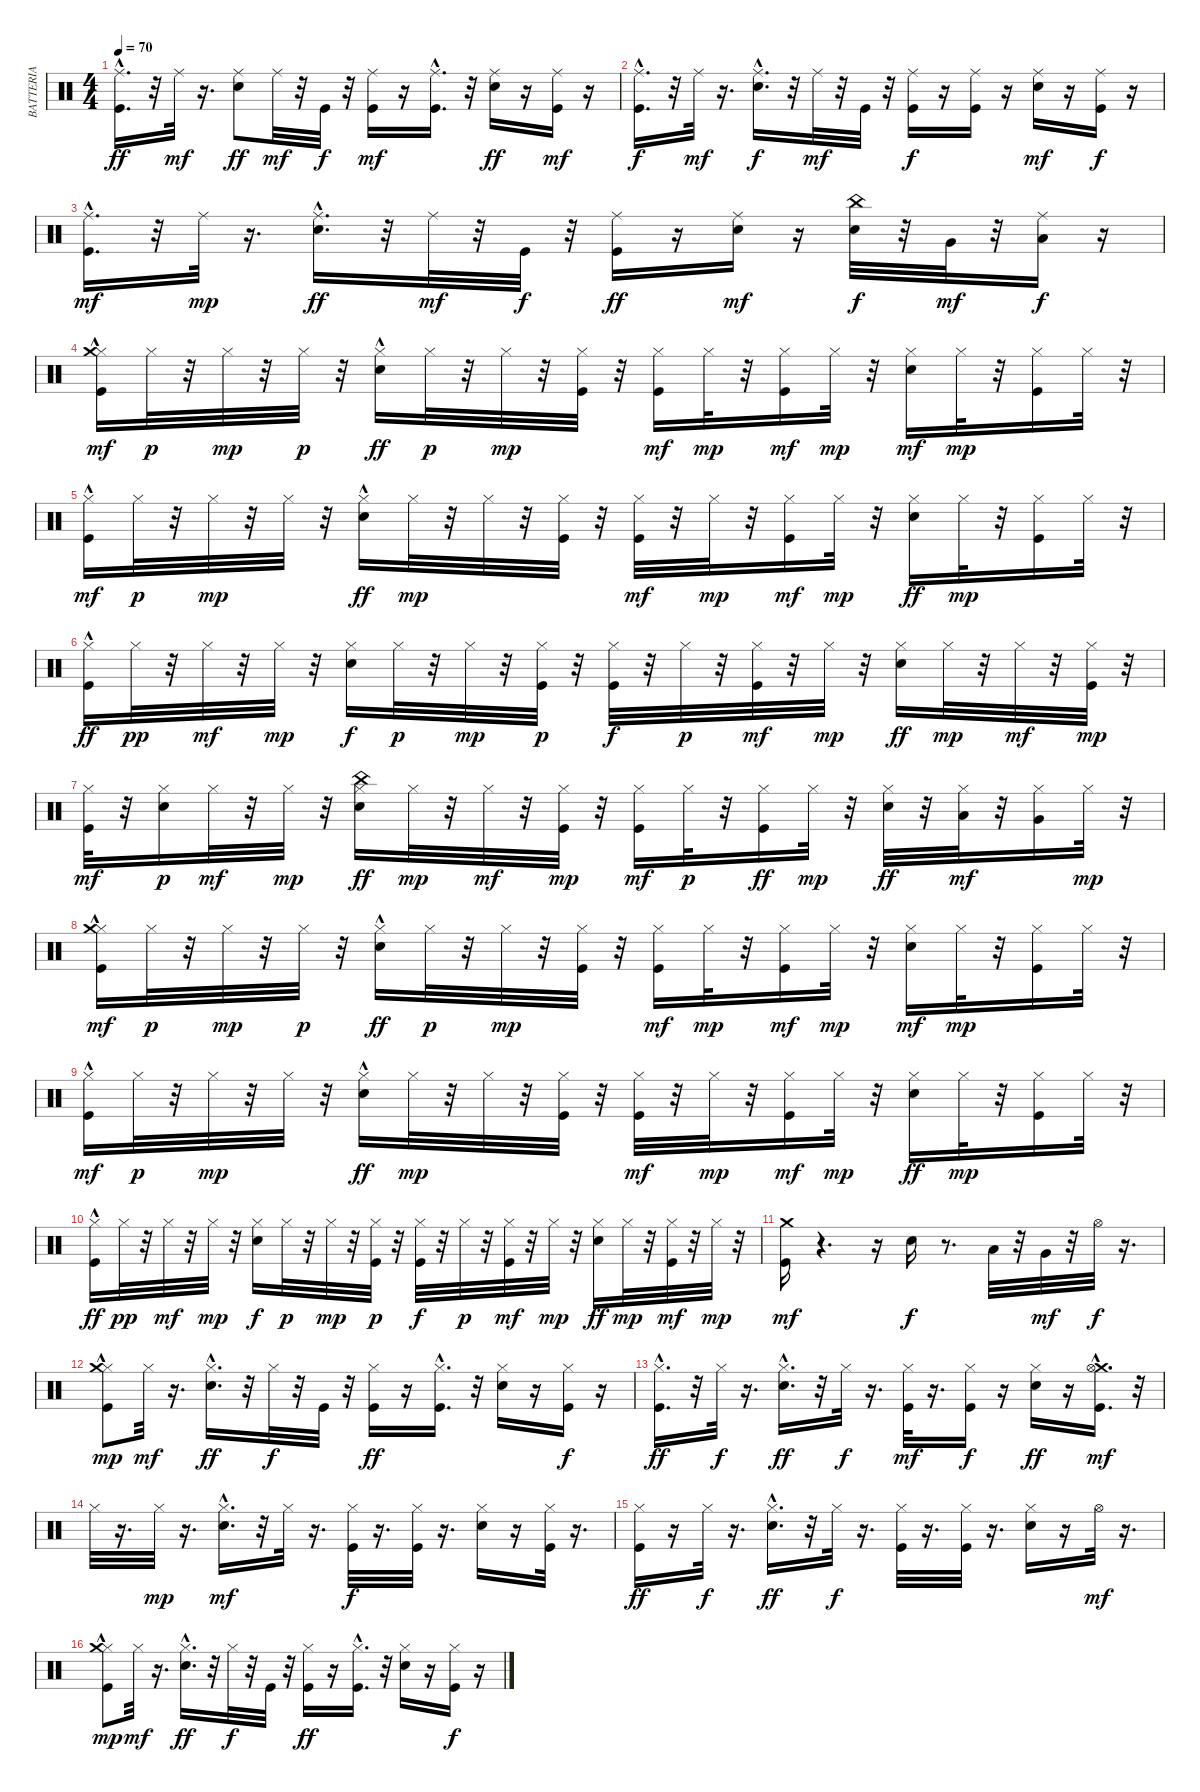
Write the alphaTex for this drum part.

\track ("BATTERIA" "BATTERIA") {instrument percussion}
\staff {score}
\articulation defaults
\ts (4 4)
\tempo 70
\clef neutral
\ks c
("Ride (middle)" "Kick (hit)"{hac}).16{d dy ff} r.32 "Ride (middle)".32{dy mf} r.16{d} ("Ride (middle)" "Snare (hit) 2").8{dy ff} "Ride (middle)".32{dy mf} r.32 "Kick (hit)".32{dy f} r.32 ("Ride (middle)" "Kick (hit)").16{dy mf} r.16 ("Ride (middle)" "Kick (hit)"{hac}).16{d} r.32 ("Ride (middle)" "Snare (hit) 2").16{dy ff} r.16 ("Ride (middle)" "Kick (hit)").16{dy mf} r.16 |
("Ride (middle)" "Kick (hit)"{hac}).16{d dy f} r.32 "Ride (middle)".32{dy mf} r.16{d} ("Ride (middle)" "Snare (hit) 2"{hac}).16{d dy f} r.32 "Ride (middle)".32{dy mf} r.32 "Kick (hit)".32 r.32 ("Ride (middle)" "Kick (hit)").16{dy f} r.16 ("Ride (middle)" "Kick (hit)").16 r.16 ("Ride (middle)" "Snare (hit) 2").16{dy mf} r.16 ("Ride (middle)" "Kick (hit)").16{dy f} r.16 |
("Ride (middle)" "Kick (hit)"{hac}).16{d dy mf} r.32 "Ride (middle)".32{dy mp} r.16{d} ("Ride (middle)" "Snare (hit) 2"{hac}).16{d dy ff} r.32 "Ride (middle)".32{dy mf} r.32 "Kick (hit)".32{dy f} r.32 ("Ride (middle)" "Kick (hit)").16{dy ff} r.16 ("Ride (middle)" "Snare (hit) 2").16{dy mf} r.16 ("China (hit)" "Snare (hit) 2").32{dy f} r.32 "Very Low Tom (hit)".32{dy mf} r.32 ("Ride (middle)" "Low Floor Tom (hit)").16{dy f} r.16 |
("Hi-Hat (closed)" "Kick (hit)"{hac} "Crash medium (hit)"{hac}).16{dy mf} "Hi-Hat (closed)".32{dy p} r.32 "Hi-Hat (closed)".32{dy mp} r.32 "Hi-Hat (closed)".32{dy p} r.32 ("Hi-Hat (closed)" "Snare (hit) 2"{hac}).16{dy ff} "Hi-Hat (closed)".32{dy p} r.32 "Hi-Hat (closed)".32{dy mp} r.32 ("Kick (hit)" "Hi-Hat (closed)").32 r.32 ("Kick (hit)" "Hi-Hat (closed)").16{dy mf} "Hi-Hat (closed)".32{dy mp} r.32 ("Kick (hit)" "Hi-Hat (closed)").16{dy mf} "Hi-Hat (closed)".32{dy mp} r.32 ("Snare (hit) 2" "Hi-Hat (closed)").16{dy mf} "Hi-Hat (closed)".32{dy mp} r.32 ("Hi-Hat (closed)" "Kick (hit)").16 "Hi-Hat (closed)".32 r.32 |
("Kick (hit)"{hac} "Hi-Hat (closed)").16{dy mf} "Hi-Hat (closed)".32{dy p} r.32 "Hi-Hat (closed)".32{dy mp} r.32 "Hi-Hat (closed)".32 r.32 ("Hi-Hat (closed)" "Snare (hit) 2"{hac}).16{dy ff} "Hi-Hat (closed)".32{dy mp} r.32 "Hi-Hat (closed)".32 r.32 ("Kick (hit)" "Hi-Hat (closed)").32 r.32 ("Hi-Hat (closed)" "Kick (hit)").32{dy mf} r.32 "Hi-Hat (closed)".32{dy mp} r.32 ("Hi-Hat (closed)" "Kick (hit)").16{dy mf} "Hi-Hat (closed)".32{dy mp} r.32 ("Hi-Hat (closed)" "Snare (hit) 2").16{dy ff} "Hi-Hat (closed)".32{dy mp} r.32 ("Hi-Hat (closed)" "Kick (hit)").16 "Hi-Hat (closed)".32 r.32 |
("Kick (hit)"{hac} "Hi-Hat (closed)").16{dy ff} "Hi-Hat (closed)".32{dy pp} r.32 "Hi-Hat (closed)".32{dy mf} r.32 "Hi-Hat (closed)".32{dy mp} r.32 ("Snare (hit) 2" "Hi-Hat (closed)").16{dy f} "Hi-Hat (closed)".32{dy p} r.32 "Hi-Hat (closed)".32{dy mp} r.32 ("Kick (hit)" "Hi-Hat (closed)").32{dy p} r.32 ("Kick (hit)" "Hi-Hat (closed)").32{dy f} r.32 "Hi-Hat (closed)".32{dy p} r.32 ("Kick (hit)" "Hi-Hat (closed)").32{dy mf} r.32 "Hi-Hat (closed)".32{dy mp} r.32 ("Hi-Hat (closed)" "Snare (hit) 2").16{dy ff} "Hi-Hat (closed)".32{dy mp} r.32 "Hi-Hat (closed)".32{dy mf} r.32 ("Hi-Hat (closed)" "Kick (hit)").32{dy mp} r.32 |
("Hi-Hat (closed)" "Kick (hit)").32{dy mf} r.32 ("Snare (hit) 2" "Hi-Hat (closed)").16{dy p} "Hi-Hat (closed)".32{dy mf} r.32 "Hi-Hat (closed)".32{dy mp} r.32 ("China (hit)" "Hi-Hat (closed)" "Snare (hit) 2").16{dy ff} "Hi-Hat (closed)".32{dy mp} r.32 "Hi-Hat (closed)".32{dy mf} r.32 ("Kick (hit)" "Hi-Hat (closed)").32{dy mp} r.32 ("Kick (hit)" "Hi-Hat (closed)").16{dy mf} "Hi-Hat (closed)".32{dy p} r.32 ("Kick (hit)" "Hi-Hat (closed)").16{dy ff} "Hi-Hat (closed)".32{dy mp} r.32 ("Hi-Hat (closed)" "Snare (hit) 2").32{dy ff} r.32 ("Hi-Hat (closed)" "Low Tom (hit)").32{dy mf} r.32 ("Very Low Tom (hit)" "Hi-Hat (closed)").16 "Hi-Hat (closed)".32{dy mp} r.32 |
("Hi-Hat (closed)" "Kick (hit)"{hac} "Crash medium (hit)"{hac}).16{dy mf} "Hi-Hat (closed)".32{dy p} r.32 "Hi-Hat (closed)".32{dy mp} r.32 "Hi-Hat (closed)".32{dy p} r.32 ("Hi-Hat (closed)" "Snare (hit) 2"{hac}).16{dy ff} "Hi-Hat (closed)".32{dy p} r.32 "Hi-Hat (closed)".32{dy mp} r.32 ("Kick (hit)" "Hi-Hat (closed)").32 r.32 ("Kick (hit)" "Hi-Hat (closed)").16{dy mf} "Hi-Hat (closed)".32{dy mp} r.32 ("Kick (hit)" "Hi-Hat (closed)").16{dy mf} "Hi-Hat (closed)".32{dy mp} r.32 ("Snare (hit) 2" "Hi-Hat (closed)").16{dy mf} "Hi-Hat (closed)".32{dy mp} r.32 ("Hi-Hat (closed)" "Kick (hit)").16 "Hi-Hat (closed)".32 r.32 |
("Kick (hit)"{hac} "Hi-Hat (closed)").16{dy mf} "Hi-Hat (closed)".32{dy p} r.32 "Hi-Hat (closed)".32{dy mp} r.32 "Hi-Hat (closed)".32 r.32 ("Hi-Hat (closed)" "Snare (hit) 2"{hac}).16{dy ff} "Hi-Hat (closed)".32{dy mp} r.32 "Hi-Hat (closed)".32 r.32 ("Kick (hit)" "Hi-Hat (closed)").32 r.32 ("Hi-Hat (closed)" "Kick (hit)").32{dy mf} r.32 "Hi-Hat (closed)".32{dy mp} r.32 ("Hi-Hat (closed)" "Kick (hit)").16{dy mf} "Hi-Hat (closed)".32{dy mp} r.32 ("Hi-Hat (closed)" "Snare (hit) 2").16{dy ff} "Hi-Hat (closed)".32{dy mp} r.32 ("Hi-Hat (closed)" "Kick (hit)").16 "Hi-Hat (closed)".32 r.32 |
("Kick (hit)"{hac} "Hi-Hat (closed)").16{dy ff} "Hi-Hat (closed)".32{dy pp} r.32 "Hi-Hat (closed)".32{dy mf} r.32 "Hi-Hat (closed)".32{dy mp} r.32 ("Snare (hit) 2" "Hi-Hat (closed)").16{dy f} "Hi-Hat (closed)".32{dy p} r.32 "Hi-Hat (closed)".32{dy mp} r.32 ("Kick (hit)" "Hi-Hat (closed)").32{dy p} r.32 ("Kick (hit)" "Hi-Hat (closed)").32{dy f} r.32 "Hi-Hat (closed)".32{dy p} r.32 ("Kick (hit)" "Hi-Hat (closed)").32{dy mf} r.32 "Hi-Hat (closed)".32{dy mp} r.32 ("Hi-Hat (closed)" "Snare (hit) 2").16{dy ff} "Hi-Hat (closed)".32{dy mp} r.32 ("Hi-Hat (closed)" "Kick (hit)").32{dy mf} r.32 "Hi-Hat (closed)".32{dy mp} r.32 |
("Kick (hit)" "Crash medium (hit)").16{dy mf} r.4{d} r.16 "Snare (hit) 2".16{dy f} r.8{d} "Low Tom (hit)".32 r.32 "Very Low Tom (hit)".32{dy mf} r.32 "Hi-Hat (open)".32{dy f} r.16{d} |
("Kick (hit)"{hac} "Hi-Hat (closed)" "Crash medium (hit)").8{dy mp} "Hi-Hat (closed)".32{dy mf} r.16{d} ("Hi-Hat (closed)" "Snare (hit) 2"{hac}).16{d dy ff} r.32 "Hi-Hat (closed)".32{dy f} r.32 "Kick (hit)".32 r.32 ("Kick (hit)" "Hi-Hat (closed)").16{dy ff} r.16 ("Kick (hit)"{hac} "Hi-Hat (closed)").16{d} r.32 ("Snare (hit) 2" "Hi-Hat (closed)").16 r.16 ("Hi-Hat (closed)" "Kick (hit)").16{dy f} r.16 |
("Kick (hit)"{hac} "Hi-Hat (closed)").16{d dy ff} r.32 "Hi-Hat (closed)".32{dy f} r.16{d} ("Snare (hit) 2"{hac} "Hi-Hat (closed)").16{d dy ff} r.32 "Hi-Hat (closed)".32{dy f} r.16{d} ("Kick (hit)" "Hi-Hat (closed)").32{dy mf} r.16{d} ("Kick (hit)" "Hi-Hat (closed)").16{dy f} r.16 ("Snare (hit) 2" "Hi-Hat (closed)").16{dy ff} r.16 ("Crash medium (hit)" "Kick (hit)"{hac} "Hi-Hat (open)").16{d dy mf} r.32 |
"Hi-Hat (closed)".32 r.16{d} "Hi-Hat (closed)".32{dy mp} r.16{d} ("Snare (hit) 2"{hac} "Hi-Hat (closed)").16{d dy mf} r.32 "Hi-Hat (closed)".32 r.16{d} ("Hi-Hat (closed)" "Kick (hit)").32{dy f} r.16{d} ("Hi-Hat (closed)" "Kick (hit)").32 r.16{d} ("Hi-Hat (closed)" "Snare (hit) 2").16 r.16 ("Hi-Hat (closed)" "Kick (hit)").32 r.16{d} |
("Hi-Hat (closed)" "Kick (hit)").16{dy ff} r.16 "Hi-Hat (closed)".32{dy f} r.16{d} ("Hi-Hat (closed)" "Snare (hit) 2"{hac}).16{d dy ff} r.32 "Hi-Hat (closed)".32{dy f} r.16{d} ("Kick (hit)" "Hi-Hat (closed)").32 r.16{d} ("Hi-Hat (closed)" "Kick (hit)").32 r.16{d} ("Hi-Hat (closed)" "Snare (hit) 2").16 r.16 "Hi-Hat (open)".32{dy mf} r.16{d} |
("Kick (hit)"{hac} "Hi-Hat (closed)" "Crash medium (hit)").8{dy mp} "Hi-Hat (closed)".32{dy mf} r.16{d} ("Hi-Hat (closed)" "Snare (hit) 2"{hac}).16{d dy ff} r.32 "Hi-Hat (closed)".32{dy f} r.32 "Kick (hit)".32 r.32 ("Kick (hit)" "Hi-Hat (closed)").16{dy ff} r.16 ("Kick (hit)"{hac} "Hi-Hat (closed)").16{d} r.32 ("Snare (hit) 2" "Hi-Hat (closed)").16 r.16 ("Hi-Hat (closed)" "Kick (hit)").16{dy f} r.16
